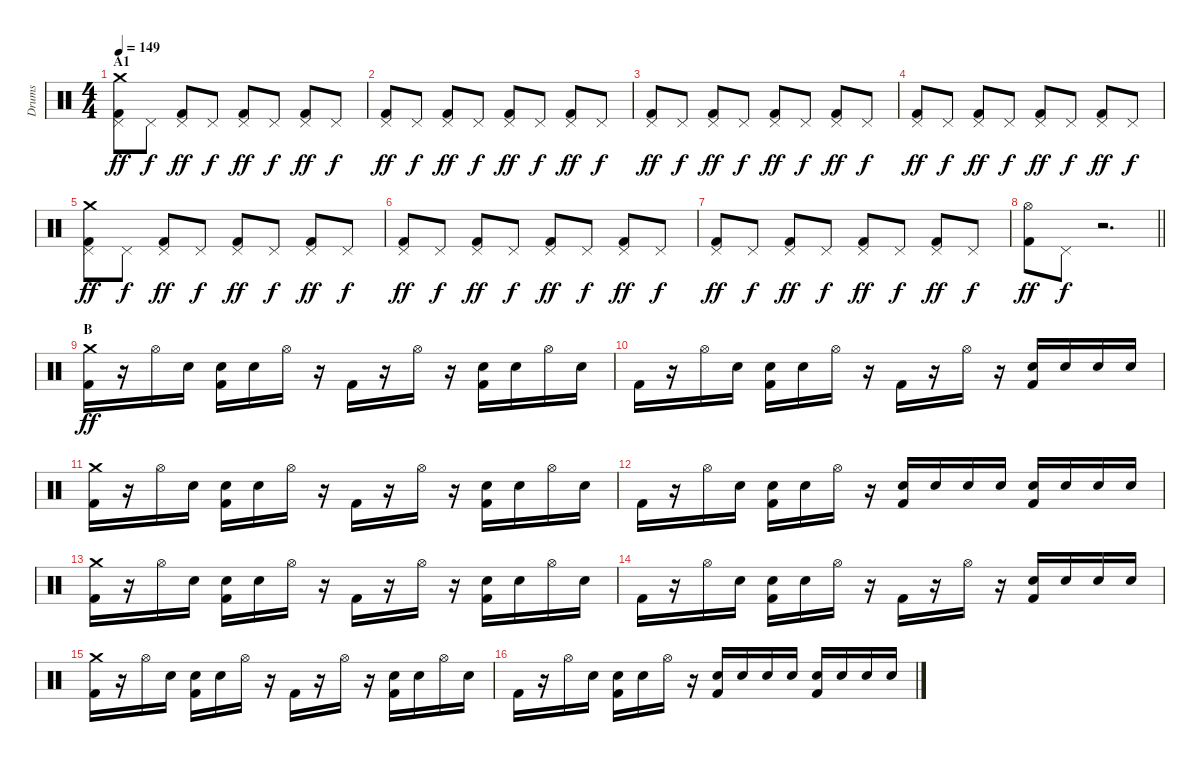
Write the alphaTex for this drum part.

\track ("Drums" "Drums") {instrument percussion}
\staff {score}
\articulation defaults
\ts (4 4)
\section ("" "A1")
\tempo 149
\clef neutral
\ks c
("Crash medium (hit)" "Pedal Hi-Hat (hit)" "Kick (hit) 2").8{dy ff} "Pedal Hi-Hat (hit)".8{dy f} ("Pedal Hi-Hat (hit)" "Kick (hit) 2").8{dy ff} "Pedal Hi-Hat (hit)".8{dy f} ("Pedal Hi-Hat (hit)" "Kick (hit) 2").8{dy ff} "Pedal Hi-Hat (hit)".8{dy f} ("Pedal Hi-Hat (hit)" "Kick (hit) 2").8{dy ff} "Pedal Hi-Hat (hit)".8{dy f} |
("Pedal Hi-Hat (hit)" "Kick (hit) 2").8{dy ff} "Pedal Hi-Hat (hit)".8{dy f} ("Pedal Hi-Hat (hit)" "Kick (hit) 2").8{dy ff} "Pedal Hi-Hat (hit)".8{dy f} ("Pedal Hi-Hat (hit)" "Kick (hit) 2").8{dy ff} "Pedal Hi-Hat (hit)".8{dy f} ("Pedal Hi-Hat (hit)" "Kick (hit) 2").8{dy ff} "Pedal Hi-Hat (hit)".8{dy f} |
("Pedal Hi-Hat (hit)" "Kick (hit) 2").8{dy ff} "Pedal Hi-Hat (hit)".8{dy f} ("Pedal Hi-Hat (hit)" "Kick (hit) 2").8{dy ff} "Pedal Hi-Hat (hit)".8{dy f} ("Pedal Hi-Hat (hit)" "Kick (hit) 2").8{dy ff} "Pedal Hi-Hat (hit)".8{dy f} ("Pedal Hi-Hat (hit)" "Kick (hit) 2").8{dy ff} "Pedal Hi-Hat (hit)".8{dy f} |
("Pedal Hi-Hat (hit)" "Kick (hit) 2").8{dy ff} "Pedal Hi-Hat (hit)".8{dy f} ("Pedal Hi-Hat (hit)" "Kick (hit) 2").8{dy ff} "Pedal Hi-Hat (hit)".8{dy f} ("Pedal Hi-Hat (hit)" "Kick (hit) 2").8{dy ff} "Pedal Hi-Hat (hit)".8{dy f} ("Pedal Hi-Hat (hit)" "Kick (hit) 2").8{dy ff} "Pedal Hi-Hat (hit)".8{dy f} |
("Crash medium (hit)" "Pedal Hi-Hat (hit)" "Kick (hit) 2").8{dy ff} "Pedal Hi-Hat (hit)".8{dy f} ("Pedal Hi-Hat (hit)" "Kick (hit) 2").8{dy ff} "Pedal Hi-Hat (hit)".8{dy f} ("Pedal Hi-Hat (hit)" "Kick (hit) 2").8{dy ff} "Pedal Hi-Hat (hit)".8{dy f} ("Pedal Hi-Hat (hit)" "Kick (hit) 2").8{dy ff} "Pedal Hi-Hat (hit)".8{dy f} |
("Pedal Hi-Hat (hit)" "Kick (hit) 2").8{dy ff} "Pedal Hi-Hat (hit)".8{dy f} ("Pedal Hi-Hat (hit)" "Kick (hit) 2").8{dy ff} "Pedal Hi-Hat (hit)".8{dy f} ("Pedal Hi-Hat (hit)" "Kick (hit) 2").8{dy ff} "Pedal Hi-Hat (hit)".8{dy f} ("Pedal Hi-Hat (hit)" "Kick (hit) 2").8{dy ff} "Pedal Hi-Hat (hit)".8{dy f} |
("Pedal Hi-Hat (hit)" "Kick (hit) 2").8{dy ff} "Pedal Hi-Hat (hit)".8{dy f} ("Pedal Hi-Hat (hit)" "Kick (hit) 2").8{dy ff} "Pedal Hi-Hat (hit)".8{dy f} ("Pedal Hi-Hat (hit)" "Kick (hit) 2").8{dy ff} "Pedal Hi-Hat (hit)".8{dy f} ("Pedal Hi-Hat (hit)" "Kick (hit) 2").8{dy ff} "Pedal Hi-Hat (hit)".8{dy f} |
\barLineRight lightlight
("Hi-Hat (open)" "Kick (hit) 2").8{dy ff} "Pedal Hi-Hat (hit)".8{dy f} r.2{d} |
\section ("" "B")
("Crash medium (hit)" "Kick (hit) 2").16{dy ff} r.16 "Hi-Hat (open)".16 "Electric Snare (hit)".16 ("Electric Snare (hit)" "Kick (hit) 2").16 "Electric Snare (hit)".16 "Hi-Hat (open)".16 r.16 "Kick (hit) 2".16 r.16 "Hi-Hat (open)".16 r.16 ("Electric Snare (hit)" "Kick (hit) 2").16 "Electric Snare (hit)".16 "Hi-Hat (open)".16 "Electric Snare (hit)".16 |
"Kick (hit) 2".16 r.16 "Hi-Hat (open)".16 "Electric Snare (hit)".16 ("Electric Snare (hit)" "Kick (hit) 2").16 "Electric Snare (hit)".16 "Hi-Hat (open)".16 r.16 "Kick (hit) 2".16 r.16 "Hi-Hat (open)".16 r.16 ("Electric Snare (hit)" "Kick (hit) 2").16 "Electric Snare (hit)".16 "Electric Snare (hit)".16 "Electric Snare (hit)".16 |
("Crash medium (hit)" "Kick (hit) 2").16 r.16 "Hi-Hat (open)".16 "Electric Snare (hit)".16 ("Electric Snare (hit)" "Kick (hit) 2").16 "Electric Snare (hit)".16 "Hi-Hat (open)".16 r.16 "Kick (hit) 2".16 r.16 "Hi-Hat (open)".16 r.16 ("Electric Snare (hit)" "Kick (hit) 2").16 "Electric Snare (hit)".16 "Hi-Hat (open)".16 "Electric Snare (hit)".16 |
"Kick (hit) 2".16 r.16 "Hi-Hat (open)".16 "Electric Snare (hit)".16 ("Electric Snare (hit)" "Kick (hit) 2").16 "Electric Snare (hit)".16 "Hi-Hat (open)".16 r.16 ("Electric Snare (hit)" "Kick (hit) 2").16 "Electric Snare (hit)".16 "Electric Snare (hit)".16 "Electric Snare (hit)".16 ("Electric Snare (hit)" "Kick (hit) 2").16 "Electric Snare (hit)".16 "Electric Snare (hit)".16 "Electric Snare (hit)".16 |
("Crash medium (hit)" "Kick (hit) 2").16 r.16 "Hi-Hat (open)".16 "Electric Snare (hit)".16 ("Electric Snare (hit)" "Kick (hit) 2").16 "Electric Snare (hit)".16 "Hi-Hat (open)".16 r.16 "Kick (hit) 2".16 r.16 "Hi-Hat (open)".16 r.16 ("Electric Snare (hit)" "Kick (hit) 2").16 "Electric Snare (hit)".16 "Hi-Hat (open)".16 "Electric Snare (hit)".16 |
"Kick (hit) 2".16 r.16 "Hi-Hat (open)".16 "Electric Snare (hit)".16 ("Electric Snare (hit)" "Kick (hit) 2").16 "Electric Snare (hit)".16 "Hi-Hat (open)".16 r.16 "Kick (hit) 2".16 r.16 "Hi-Hat (open)".16 r.16 ("Electric Snare (hit)" "Kick (hit) 2").16 "Electric Snare (hit)".16 "Electric Snare (hit)".16 "Electric Snare (hit)".16 |
("Crash medium (hit)" "Kick (hit) 2").16 r.16 "Hi-Hat (open)".16 "Electric Snare (hit)".16 ("Electric Snare (hit)" "Kick (hit) 2").16 "Electric Snare (hit)".16 "Hi-Hat (open)".16 r.16 "Kick (hit) 2".16 r.16 "Hi-Hat (open)".16 r.16 ("Electric Snare (hit)" "Kick (hit) 2").16 "Electric Snare (hit)".16 "Hi-Hat (open)".16 "Electric Snare (hit)".16 |
"Kick (hit) 2".16 r.16 "Hi-Hat (open)".16 "Electric Snare (hit)".16 ("Electric Snare (hit)" "Kick (hit) 2").16 "Electric Snare (hit)".16 "Hi-Hat (open)".16 r.16 ("Electric Snare (hit)" "Kick (hit) 2").16 "Electric Snare (hit)".16 "Electric Snare (hit)".16 "Electric Snare (hit)".16 ("Electric Snare (hit)" "Kick (hit) 2").16 "Electric Snare (hit)".16 "Electric Snare (hit)".16 "Electric Snare (hit)".16
